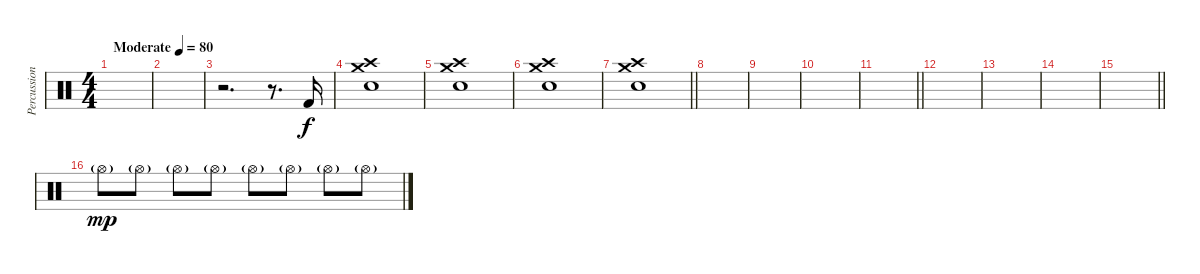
\track ("Percussion" "Percussion") {instrument percussion}
\staff {score}
\articulation defaults
\ts (4 4)
\tempo (80 "Moderate")
\clef neutral
\ks c
|
|
r.2{d} r.8{d} "Kick (hit) 2".16 |
("Snare (hit) 2" "Crash high (hit)" "Crash medium (hit)").1 |
("Snare (hit) 2" "Crash high (hit)" "Crash medium (hit)").1 |
("Snare (hit) 2" "Crash high (hit)" "Crash medium (hit)").1 |
\barLineRight lightlight
("Snare (hit) 2" "Crash high (hit)" "Crash medium (hit)").1 |
|
|
|
\barLineRight lightlight
|
|
|
|
\barLineRight lightlight
|
"Hi-Hat (open)"{g}.8{dy mp} "Hi-Hat (open)"{g}.8 "Hi-Hat (open)"{g}.8 "Hi-Hat (open)"{g}.8 "Hi-Hat (open)"{g}.8 "Hi-Hat (open)"{g}.8 "Hi-Hat (open)"{g}.8 "Hi-Hat (open)"{g}.8
